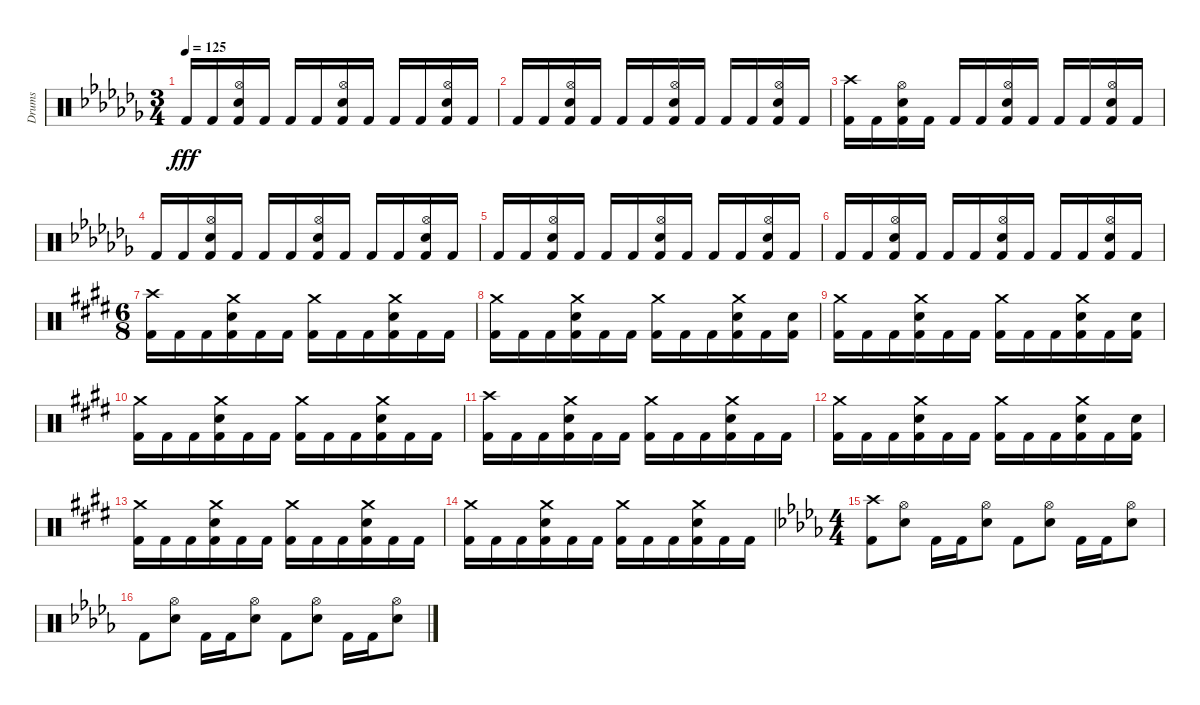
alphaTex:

\track ("Drums" "Drums") {instrument percussion}
\staff {score}
\articulation defaults
\ts (3 4)
\tempo 125
\clef neutral
\ks abminor "Kick (hit) 2".16{dy fff} "Kick (hit) 2".16
("Hi-Hat (open)" "Snare (hit) 2" "Kick (hit) 2").16 "Kick (hit) 2".16 "Kick (hit) 2".16 "Kick (hit) 2".16 ("Hi-Hat (open)" "Snare (hit) 2" "Kick (hit) 2").16 "Kick (hit) 2".16 "Kick (hit) 2".16 "Kick (hit) 2".16 ("Hi-Hat (open)" "Snare (hit) 2" "Kick (hit) 2").16 "Kick (hit) 2".16 |
"Kick (hit) 2".16 "Kick (hit) 2".16 ("Hi-Hat (open)" "Snare (hit) 2" "Kick (hit) 2").16 "Kick (hit) 2".16 "Kick (hit) 2".16 "Kick (hit) 2".16 ("Hi-Hat (open)" "Snare (hit) 2" "Kick (hit) 2").16 "Kick (hit) 2".16 "Kick (hit) 2".16 "Kick (hit) 2".16 ("Hi-Hat (open)" "Snare (hit) 2" "Kick (hit) 2").16 "Kick (hit) 2".16 |
("Crash high (hit)" "Kick (hit) 2").16 "Kick (hit) 2".16 ("Hi-Hat (open)" "Snare (hit) 2" "Kick (hit) 2").16 "Kick (hit) 2".16 "Kick (hit) 2".16 "Kick (hit) 2".16 ("Hi-Hat (open)" "Snare (hit) 2" "Kick (hit) 2").16 "Kick (hit) 2".16 "Kick (hit) 2".16 "Kick (hit) 2".16 ("Hi-Hat (open)" "Snare (hit) 2" "Kick (hit) 2").16 "Kick (hit) 2".16 |
"Kick (hit) 2".16 "Kick (hit) 2".16 ("Hi-Hat (open)" "Snare (hit) 2" "Kick (hit) 2").16 "Kick (hit) 2".16 "Kick (hit) 2".16 "Kick (hit) 2".16 ("Hi-Hat (open)" "Snare (hit) 2" "Kick (hit) 2").16 "Kick (hit) 2".16 "Kick (hit) 2".16 "Kick (hit) 2".16 ("Hi-Hat (open)" "Snare (hit) 2" "Kick (hit) 2").16 "Kick (hit) 2".16 |
"Kick (hit) 2".16 "Kick (hit) 2".16 ("Hi-Hat (open)" "Snare (hit) 2" "Kick (hit) 2").16 "Kick (hit) 2".16 "Kick (hit) 2".16 "Kick (hit) 2".16 ("Hi-Hat (open)" "Snare (hit) 2" "Kick (hit) 2").16 "Kick (hit) 2".16 "Kick (hit) 2".16 "Kick (hit) 2".16 ("Hi-Hat (open)" "Snare (hit) 2" "Kick (hit) 2").16 "Kick (hit) 2".16 |
"Kick (hit) 2".16 "Kick (hit) 2".16 ("Hi-Hat (open)" "Snare (hit) 2" "Kick (hit) 2").16 "Kick (hit) 2".16 "Kick (hit) 2".16 "Kick (hit) 2".16 ("Hi-Hat (open)" "Snare (hit) 2" "Kick (hit) 2").16 "Kick (hit) 2".16 "Kick (hit) 2".16 "Kick (hit) 2".16 ("Hi-Hat (open)" "Snare (hit) 2" "Kick (hit) 2").16 "Kick (hit) 2".16 |
\ts (6 8)
\ks c#minor
("Crash high (hit)" "Kick (hit) 2").16 "Kick (hit) 2".16 "Kick (hit) 2".16 ("Crash medium (hit)" "Snare (hit) 2" "Kick (hit) 2").16 "Kick (hit) 2".16 "Kick (hit) 2".16 ("Crash medium (hit)" "Kick (hit) 2").16 "Kick (hit) 2".16 "Kick (hit) 2".16 ("Crash medium (hit)" "Snare (hit) 2" "Kick (hit) 2").16 "Kick (hit) 2".16 "Kick (hit) 2".16 |
("Crash medium (hit)" "Kick (hit) 2").16 "Kick (hit) 2".16 "Kick (hit) 2".16 ("Crash medium (hit)" "Snare (hit) 2" "Kick (hit) 2").16 "Kick (hit) 2".16 "Kick (hit) 2".16 ("Crash medium (hit)" "Kick (hit) 2").16 "Kick (hit) 2".16 "Kick (hit) 2".16 ("Crash medium (hit)" "Snare (hit) 2" "Kick (hit) 2").16 "Kick (hit) 2".16 ("Snare (hit) 2" "Kick (hit) 2").16 |
("Crash medium (hit)" "Kick (hit) 2").16 "Kick (hit) 2".16 "Kick (hit) 2".16 ("Crash medium (hit)" "Snare (hit) 2" "Kick (hit) 2").16 "Kick (hit) 2".16 "Kick (hit) 2".16 ("Crash medium (hit)" "Kick (hit) 2").16 "Kick (hit) 2".16 "Kick (hit) 2".16 ("Crash medium (hit)" "Snare (hit) 2" "Kick (hit) 2").16 "Kick (hit) 2".16 ("Snare (hit) 2" "Kick (hit) 2").16 |
("Crash medium (hit)" "Kick (hit) 2").16 "Kick (hit) 2".16 "Kick (hit) 2".16 ("Crash medium (hit)" "Snare (hit) 2" "Kick (hit) 2").16 "Kick (hit) 2".16 "Kick (hit) 2".16 ("Crash medium (hit)" "Kick (hit) 2").16 "Kick (hit) 2".16 "Kick (hit) 2".16 ("Crash medium (hit)" "Snare (hit) 2" "Kick (hit) 2").16 "Kick (hit) 2".16 "Kick (hit) 2".16 |
("Crash high (hit)" "Kick (hit) 2").16 "Kick (hit) 2".16 "Kick (hit) 2".16 ("Crash medium (hit)" "Snare (hit) 2" "Kick (hit) 2").16 "Kick (hit) 2".16 "Kick (hit) 2".16 ("Crash medium (hit)" "Kick (hit) 2").16 "Kick (hit) 2".16 "Kick (hit) 2".16 ("Crash medium (hit)" "Snare (hit) 2" "Kick (hit) 2").16 "Kick (hit) 2".16 "Kick (hit) 2".16 |
("Crash medium (hit)" "Kick (hit) 2").16 "Kick (hit) 2".16 "Kick (hit) 2".16 ("Crash medium (hit)" "Snare (hit) 2" "Kick (hit) 2").16 "Kick (hit) 2".16 "Kick (hit) 2".16 ("Crash medium (hit)" "Kick (hit) 2").16 "Kick (hit) 2".16 "Kick (hit) 2".16 ("Crash medium (hit)" "Snare (hit) 2" "Kick (hit) 2").16 "Kick (hit) 2".16 ("Snare (hit) 2" "Kick (hit) 2").16 |
("Crash medium (hit)" "Kick (hit) 2").16 "Kick (hit) 2".16 "Kick (hit) 2".16 ("Crash medium (hit)" "Snare (hit) 2" "Kick (hit) 2").16 "Kick (hit) 2".16 "Kick (hit) 2".16 ("Crash medium (hit)" "Kick (hit) 2").16 "Kick (hit) 2".16 "Kick (hit) 2".16 ("Crash medium (hit)" "Snare (hit) 2" "Kick (hit) 2").16 "Kick (hit) 2".16 "Kick (hit) 2".16 |
("Crash medium (hit)" "Kick (hit) 2").16 "Kick (hit) 2".16 "Kick (hit) 2".16 ("Crash medium (hit)" "Snare (hit) 2" "Kick (hit) 2").16 "Kick (hit) 2".16 "Kick (hit) 2".16 ("Crash medium (hit)" "Kick (hit) 2").16 "Kick (hit) 2".16 "Kick (hit) 2".16 ("Crash medium (hit)" "Snare (hit) 2" "Kick (hit) 2").16 "Kick (hit) 2".16 "Kick (hit) 2".16 |
\ts (4 4)
\section ("" "")
\ks bbminor
("Crash high (hit)" "Kick (hit) 2").8 ("Hi-Hat (open)" "Snare (hit) 2").8 "Kick (hit) 2".16 "Kick (hit) 2".16 ("Hi-Hat (open)" "Snare (hit) 2").8 "Kick (hit) 2".8 ("Hi-Hat (open)" "Snare (hit) 2").8 "Kick (hit) 2".16 "Kick (hit) 2".16 ("Hi-Hat (open)" "Snare (hit) 2").8 |
"Kick (hit) 2".8 ("Hi-Hat (open)" "Snare (hit) 2").8 "Kick (hit) 2".16 "Kick (hit) 2".16 ("Hi-Hat (open)" "Snare (hit) 2").8 "Kick (hit) 2".8 ("Hi-Hat (open)" "Snare (hit) 2").8 "Kick (hit) 2".16 "Kick (hit) 2".16 ("Hi-Hat (open)" "Snare (hit) 2").8
